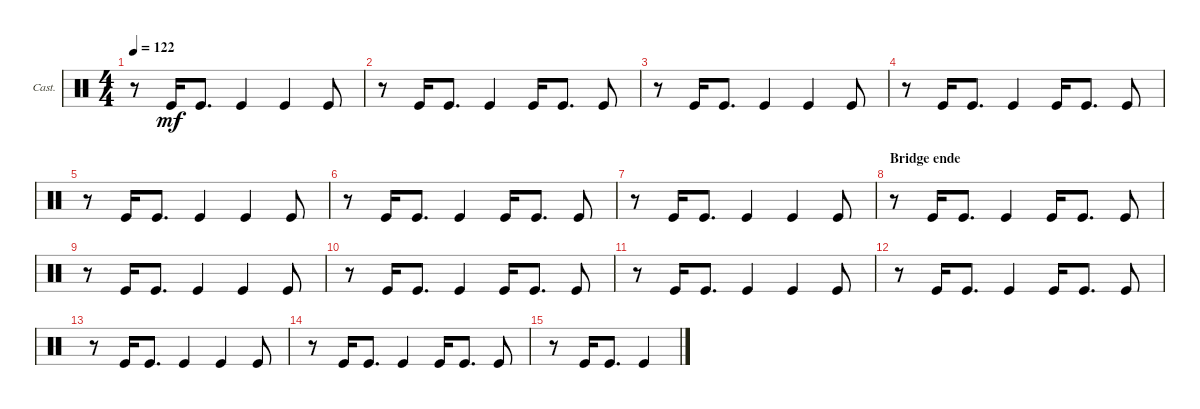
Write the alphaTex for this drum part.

\defaultSystemsLayout 4
\bracketExtendMode groupsimilarinstruments
\firstSystemTrackNameOrientation horizontal
\otherSystemsTrackNameOrientation horizontal
\track ("Castanets" "Cast.") {instrument percussion}
\staff {score}
\articulation defaults
\ts (4 4)
\tempo 122
\clef neutral
\ks c
r.8{dy mf} "Kick (hit)".16 "Kick (hit)".8{d} "Kick (hit)".4 "Kick (hit)".4 "Kick (hit)".8 |
r.8 "Kick (hit)".16 "Kick (hit)".8{d} "Kick (hit)".4 "Kick (hit)".16 "Kick (hit)".8{d} "Kick (hit)".8 |
r.8 "Kick (hit)".16 "Kick (hit)".8{d} "Kick (hit)".4 "Kick (hit)".4 "Kick (hit)".8 |
r.8 "Kick (hit)".16 "Kick (hit)".8{d} "Kick (hit)".4 "Kick (hit)".16 "Kick (hit)".8{d} "Kick (hit)".8 |
r.8 "Kick (hit)".16 "Kick (hit)".8{d} "Kick (hit)".4 "Kick (hit)".4 "Kick (hit)".8 |
r.8 "Kick (hit)".16 "Kick (hit)".8{d} "Kick (hit)".4 "Kick (hit)".16 "Kick (hit)".8{d} "Kick (hit)".8 |
r.8 "Kick (hit)".16 "Kick (hit)".8{d} "Kick (hit)".4 "Kick (hit)".4 "Kick (hit)".8 |
\section ("" "Bridge ende")
r.8 "Kick (hit)".16 "Kick (hit)".8{d} "Kick (hit)".4 "Kick (hit)".16 "Kick (hit)".8{d} "Kick (hit)".8 |
r.8 "Kick (hit)".16 "Kick (hit)".8{d} "Kick (hit)".4 "Kick (hit)".4 "Kick (hit)".8 |
r.8 "Kick (hit)".16 "Kick (hit)".8{d} "Kick (hit)".4 "Kick (hit)".16 "Kick (hit)".8{d} "Kick (hit)".8 |
r.8 "Kick (hit)".16 "Kick (hit)".8{d} "Kick (hit)".4 "Kick (hit)".4 "Kick (hit)".8 |
r.8 "Kick (hit)".16 "Kick (hit)".8{d} "Kick (hit)".4 "Kick (hit)".16 "Kick (hit)".8{d} "Kick (hit)".8 |
r.8 "Kick (hit)".16 "Kick (hit)".8{d} "Kick (hit)".4 "Kick (hit)".4 "Kick (hit)".8 |
r.8 "Kick (hit)".16 "Kick (hit)".8{d} "Kick (hit)".4 "Kick (hit)".16 "Kick (hit)".8{d} "Kick (hit)".8 |
r.8 "Kick (hit)".16 "Kick (hit)".8{d} "Kick (hit)".4
